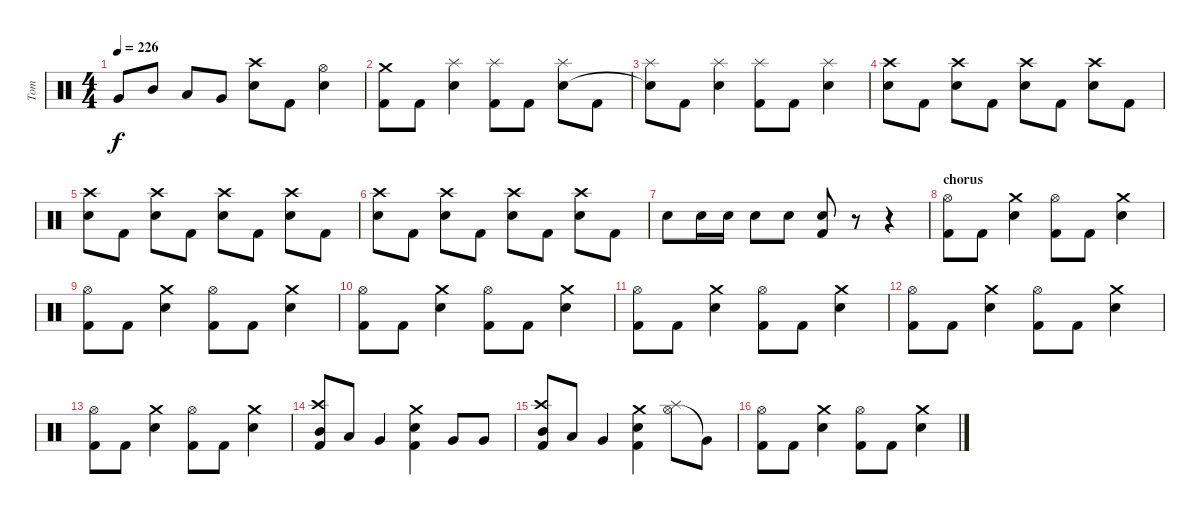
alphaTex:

\track ("Tom" "Tom") {instrument percussion}
\staff {score}
\articulation defaults
\ts (4 4)
\tempo 226
\clef neutral
\ks c "Very Low Tom (hit)".8{dy f} "Mid Tom (hit)".8 "Low Tom (hit)".8 "Very Low Tom (hit)".8
("Electric Snare (hit)" "Crash high (hit)").8 "Kick (hit) 2".8 ("Electric Snare (hit)" "Hi-Hat (open)").4 |
("Crash medium (hit)" "Kick (hit) 2").8 "Kick (hit) 2".8 ("Splash (hit)" "Electric Snare (hit)").4 ("Splash (hit)" "Kick (hit) 2").8 "Kick (hit) 2".8 ("Splash (hit)" "Electric Snare (hit)").8 "Kick (hit) 2".8 |
("Splash (hit)" "Snare (hit)"{t}).8 "Kick (hit) 2".8 ("Splash (hit)" "Electric Snare (hit)").4 ("Splash (hit)" "Kick (hit) 2").8 "Kick (hit) 2".8 ("Splash (hit)" "Electric Snare (hit)").4 |
("Crash high (hit)" "Electric Snare (hit)").8 "Kick (hit) 2".8 ("Crash high (hit)" "Electric Snare (hit)").8 "Kick (hit) 2".8 ("Crash high (hit)" "Electric Snare (hit)").8 "Kick (hit) 2".8 ("Crash high (hit)" "Electric Snare (hit)").8 "Kick (hit) 2".8 |
("Crash high (hit)" "Electric Snare (hit)").8 "Kick (hit) 2".8 ("Crash high (hit)" "Electric Snare (hit)").8 "Kick (hit) 2".8 ("Crash high (hit)" "Electric Snare (hit)").8 "Kick (hit) 2".8 ("Crash high (hit)" "Electric Snare (hit)").8 "Kick (hit) 2".8 |
("Crash high (hit)" "Electric Snare (hit)").8 "Kick (hit) 2".8 ("Crash high (hit)" "Electric Snare (hit)").8 "Kick (hit) 2".8 ("Crash high (hit)" "Electric Snare (hit)").8 "Kick (hit) 2".8 ("Crash high (hit)" "Electric Snare (hit)").8 "Kick (hit) 2".8 |
"Electric Snare (hit)".8 "Electric Snare (hit)".16 "Electric Snare (hit)".16 "Electric Snare (hit)".8 "Electric Snare (hit)".8 ("Electric Snare (hit)" "Kick (hit) 2").8 r.8 r.4 |
\section ("" "chorus")
("Hi-Hat (open)" "Kick (hit) 2").8 "Kick (hit) 2".8 ("Crash medium (hit)" "Electric Snare (hit)").4 ("Hi-Hat (open)" "Kick (hit) 2").8 "Kick (hit) 2".8 ("Crash medium (hit)" "Electric Snare (hit)").4 |
("Hi-Hat (open)" "Kick (hit) 2").8 "Kick (hit) 2".8 ("Crash medium (hit)" "Electric Snare (hit)").4 ("Hi-Hat (open)" "Kick (hit) 2").8 "Kick (hit) 2".8 ("Crash medium (hit)" "Electric Snare (hit)").4 |
("Hi-Hat (open)" "Kick (hit) 2").8 "Kick (hit) 2".8 ("Crash medium (hit)" "Electric Snare (hit)").4 ("Hi-Hat (open)" "Kick (hit) 2").8 "Kick (hit) 2".8 ("Crash medium (hit)" "Electric Snare (hit)").4 |
("Hi-Hat (open)" "Kick (hit) 2").8 "Kick (hit) 2".8 ("Crash medium (hit)" "Electric Snare (hit)").4 ("Hi-Hat (open)" "Kick (hit) 2").8 "Kick (hit) 2".8 ("Crash medium (hit)" "Electric Snare (hit)").4 |
("Hi-Hat (open)" "Kick (hit) 2").8 "Kick (hit) 2".8 ("Crash medium (hit)" "Electric Snare (hit)").4 ("Hi-Hat (open)" "Kick (hit) 2").8 "Kick (hit) 2".8 ("Crash medium (hit)" "Electric Snare (hit)").4 |
("Hi-Hat (open)" "Kick (hit) 2").8 "Kick (hit) 2".8 ("Crash medium (hit)" "Electric Snare (hit)").4 ("Hi-Hat (open)" "Kick (hit) 2").8 "Kick (hit) 2".8 ("Crash medium (hit)" "Electric Snare (hit)").4 |
("Crash high (hit)" "Mid Tom (hit)" "Kick (hit) 2").8 "Low Tom (hit)".8 "Very Low Tom (hit)".4 ("Crash medium (hit)" "Electric Snare (hit)" "Kick (hit) 2").4 "Very Low Tom (hit)".8 "Very Low Tom (hit)".8 |
("Crash high (hit)" "Mid Tom (hit)" "Kick (hit) 2").8 "Low Tom (hit)".8 "Very Low Tom (hit)".4 ("Crash medium (hit)" "Electric Snare (hit)" "Kick (hit) 2").4 ("Hi-Hat (open)" "Splash (hit)").8 "Very Low Tom (hit)"{t}.8 |
("Hi-Hat (open)" "Kick (hit) 2").8 "Kick (hit) 2".8 ("Crash medium (hit)" "Electric Snare (hit)").4 ("Hi-Hat (open)" "Kick (hit) 2").8 "Kick (hit) 2".8 ("Crash medium (hit)" "Electric Snare (hit)").4
